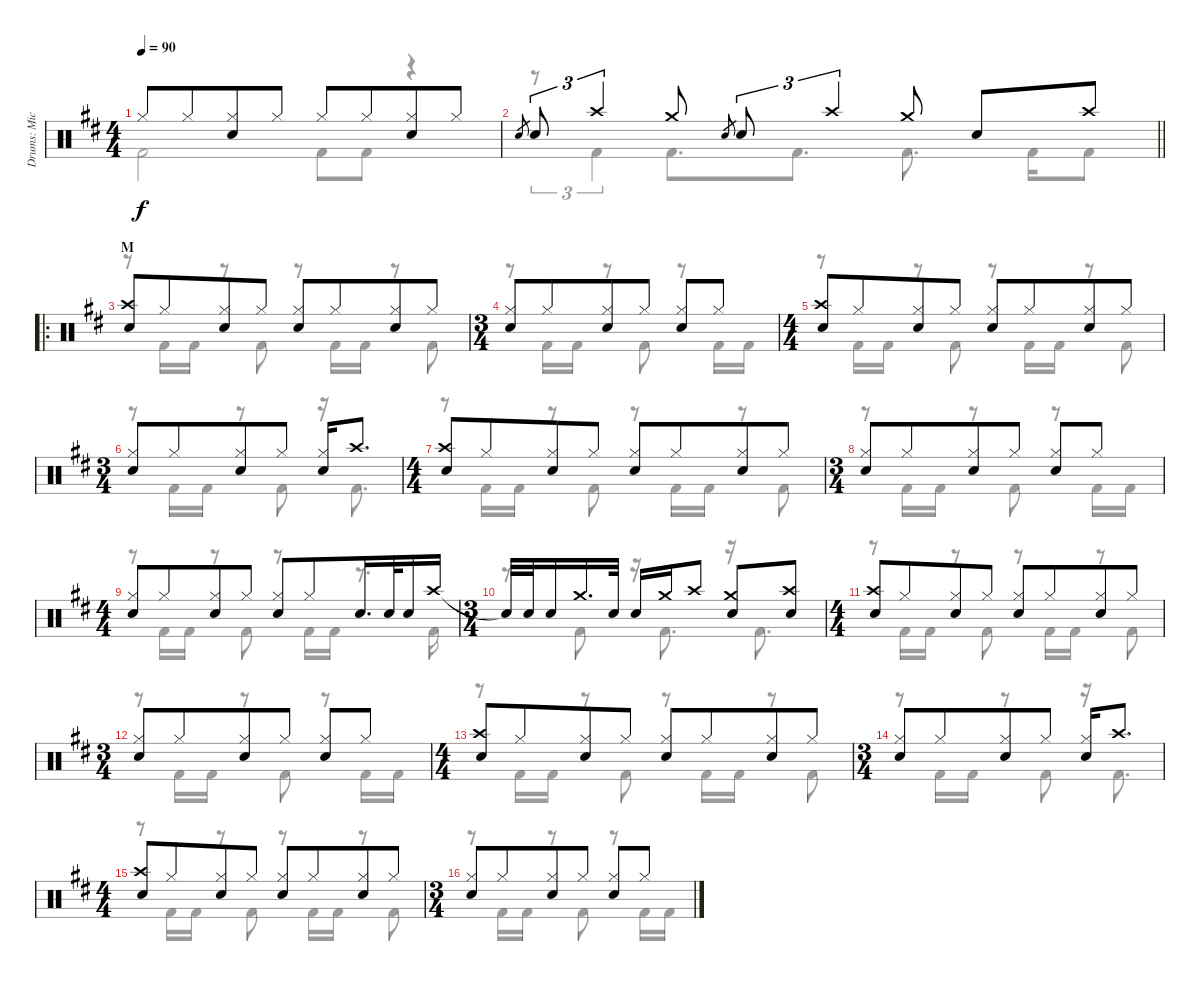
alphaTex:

\track ("Drums: Mick" "Drums: Mic") {instrument percussion}
\staff {score}
\articulation defaults
\voice
\ts (4 4)
\tempo 90
\clef neutral
\ks d "Hi-Hat (closed)".8{dy f} "Hi-Hat (closed)".8{beam merge}
("Hi-Hat (closed)" "Snare (hit) 2").8 "Hi-Hat (closed)".8 "Hi-Hat (closed)".8 "Hi-Hat (closed)".8{beam merge} ("Hi-Hat (closed)" "Snare (hit) 2").8 "Hi-Hat (closed)".8 |
\barLineRight lightlight "Electric Snare (hit)".8{gr} "Snare (hit) 2".8{tu (3 2)} "Crash high (hit)".4{tu (3 2)} "Crash medium (hit)".8 "Electric Snare (hit)".8{gr} "Snare (hit) 2".8{tu (3 2)} "Crash high (hit)".4{tu (3 2)} "Crash medium (hit)".8 "Snare (hit) 2".8 "Crash high (hit)".8
|
\ro
\section ("" "M")
("Crash high (hit)" "Snare (hit) 2").8 "Hi-Hat (closed)".8{beam merge} ("Hi-Hat (closed)" "Snare (hit) 2").8 "Hi-Hat (closed)".8 ("Hi-Hat (closed)" "Snare (hit) 2").8 "Hi-Hat (closed)".8{beam merge} ("Hi-Hat (closed)" "Snare (hit) 2").8 "Hi-Hat (closed)".8 |
\ts (3 4)
("Hi-Hat (closed)" "Snare (hit) 2").8 "Hi-Hat (closed)".8{beam merge} ("Hi-Hat (closed)" "Snare (hit) 2").8 "Hi-Hat (closed)".8 ("Hi-Hat (closed)" "Snare (hit) 2").8 "Hi-Hat (closed)".8 |
\ts (4 4)
("Crash high (hit)" "Snare (hit) 2").8 "Hi-Hat (closed)".8{beam merge} ("Hi-Hat (closed)" "Snare (hit) 2").8 "Hi-Hat (closed)".8 ("Hi-Hat (closed)" "Snare (hit) 2").8 "Hi-Hat (closed)".8{beam merge} ("Hi-Hat (closed)" "Snare (hit) 2").8 "Hi-Hat (closed)".8 |
\ts (3 4)
("Hi-Hat (closed)" "Snare (hit) 2").8 "Hi-Hat (closed)".8{beam merge} ("Hi-Hat (closed)" "Snare (hit) 2").8 "Hi-Hat (closed)".8 ("Hi-Hat (closed)" "Snare (hit) 2").16 "Crash high (hit)".8{d} |
\ts (4 4)
("Crash high (hit)" "Snare (hit) 2").8 "Hi-Hat (closed)".8{beam merge} ("Hi-Hat (closed)" "Snare (hit) 2").8 "Hi-Hat (closed)".8 ("Hi-Hat (closed)" "Snare (hit) 2").8 "Hi-Hat (closed)".8{beam merge} ("Hi-Hat (closed)" "Snare (hit) 2").8 "Hi-Hat (closed)".8 |
\ts (3 4)
("Hi-Hat (closed)" "Snare (hit) 2").8 "Hi-Hat (closed)".8{beam merge} ("Hi-Hat (closed)" "Snare (hit) 2").8 "Hi-Hat (closed)".8 ("Hi-Hat (closed)" "Snare (hit) 2").8 "Hi-Hat (closed)".8 |
\ts (4 4)
("Hi-Hat (closed)" "Snare (hit) 2").8 "Hi-Hat (closed)".8{beam merge} ("Hi-Hat (closed)" "Snare (hit) 2").8 "Hi-Hat (closed)".8 ("Hi-Hat (closed)" "Snare (hit) 2").8 "Hi-Hat (closed)".8{beam merge} "Snare (hit) 2".16{d} "Snare (hit) 2".32 "Snare (hit) 2".16 "Crash high (hit)".16 |
\ts (3 4)
"Snare (hit)"{t}.32{beam merge} "Snare (hit) 2".32 "Snare (hit) 2".16 "Crash medium (hit)".16{d} "Snare (hit) 2".32 "Snare (hit) 2".16 "Crash medium (hit)".16 "Crash high (hit)".8 ("Crash medium (hit)" "Snare (hit) 2").8 ("Crash high (hit)" "Snare (hit) 2").8 |
\ts (4 4)
("Crash high (hit)" "Snare (hit) 2").8 "Hi-Hat (closed)".8{beam merge} ("Hi-Hat (closed)" "Snare (hit) 2").8 "Hi-Hat (closed)".8 ("Hi-Hat (closed)" "Snare (hit) 2").8 "Hi-Hat (closed)".8{beam merge} ("Hi-Hat (closed)" "Snare (hit) 2").8 "Hi-Hat (closed)".8 |
\ts (3 4)
("Hi-Hat (closed)" "Snare (hit) 2").8 "Hi-Hat (closed)".8{beam merge} ("Hi-Hat (closed)" "Snare (hit) 2").8 "Hi-Hat (closed)".8 ("Hi-Hat (closed)" "Snare (hit) 2").8 "Hi-Hat (closed)".8 |
\ts (4 4)
("Crash high (hit)" "Snare (hit) 2").8 "Hi-Hat (closed)".8{beam merge} ("Hi-Hat (closed)" "Snare (hit) 2").8{volume 10} "Hi-Hat (closed)".8 ("Hi-Hat (closed)" "Snare (hit) 2").8 "Hi-Hat (closed)".8{beam merge} ("Hi-Hat (closed)" "Snare (hit) 2").8 "Hi-Hat (closed)".8 |
\ts (3 4)
("Hi-Hat (closed)" "Snare (hit) 2").8 "Hi-Hat (closed)".8{beam merge} ("Hi-Hat (closed)" "Snare (hit) 2").8 "Hi-Hat (closed)".8 ("Hi-Hat (closed)" "Snare (hit) 2").16 "Crash high (hit)".8{d} |
\ts (4 4)
("Crash high (hit)" "Snare (hit) 2").8 "Hi-Hat (closed)".8{beam merge} ("Hi-Hat (closed)" "Snare (hit) 2").8 "Hi-Hat (closed)".8 ("Hi-Hat (closed)" "Snare (hit) 2").8 "Hi-Hat (closed)".8{beam merge} ("Hi-Hat (closed)" "Snare (hit) 2").8 "Hi-Hat (closed)".8 |
\ts (3 4)
("Hi-Hat (closed)" "Snare (hit) 2").8 "Hi-Hat (closed)".8{beam merge} ("Hi-Hat (closed)" "Snare (hit) 2").8 "Hi-Hat (closed)".8 ("Hi-Hat (closed)" "Snare (hit) 2").8 "Hi-Hat (closed)".8
\voice
\clef neutral
\ottava regular
\simile none
\ks d "Kick (hit) 2".2{dy f} "Kick (hit) 2".8 "Kick (hit) 2".8
r.4 |
\barLineRight lightlight
r.8{tu (3 2)} "Kick (hit) 2".4{tu (3 2)} "Kick (hit) 2".8{d} "Kick (hit) 2".8{d} "Kick (hit) 2".8{d} "Kick (hit) 2".16 "Kick (hit) 2".8 |
r.8 "Kick (hit) 2".16 "Kick (hit) 2".16 r.8 "Kick (hit) 2".8 r.8 "Kick (hit) 2".16 "Kick (hit) 2".16 r.8 "Kick (hit) 2".8 |
r.8 "Kick (hit) 2".16 "Kick (hit) 2".16 r.8 "Kick (hit) 2".8 r.8 "Kick (hit) 2".16 "Kick (hit) 2".16 |
r.8 "Kick (hit) 2".16 "Kick (hit) 2".16 r.8 "Kick (hit) 2".8 r.8 "Kick (hit) 2".16 "Kick (hit) 2".16 r.8 "Kick (hit) 2".8 |
r.8 "Kick (hit) 2".16 "Kick (hit) 2".16 r.8 "Kick (hit) 2".8 r.16 "Kick (hit) 2".8{d} |
r.8 "Kick (hit) 2".16 "Kick (hit) 2".16 r.8 "Kick (hit) 2".8 r.8 "Kick (hit) 2".16 "Kick (hit) 2".16 r.8 "Kick (hit) 2".8 |
r.8 "Kick (hit) 2".16 "Kick (hit) 2".16 r.8 "Kick (hit) 2".8 r.8 "Kick (hit) 2".16 "Kick (hit) 2".16 |
r.8 "Kick (hit) 2".16 "Kick (hit) 2".16 r.8 "Kick (hit) 2".8 r.8 "Kick (hit) 2".16 "Kick (hit) 2".16 r.8{d} "Kick (hit) 2".16 |
r.8 "Kick (hit) 2".8 r.16 "Kick (hit) 2".8{d} r.16 "Kick (hit) 2".8{d} |
r.8 "Kick (hit) 2".16 "Kick (hit) 2".16 r.8 "Kick (hit) 2".8 r.8 "Kick (hit) 2".16 "Kick (hit) 2".16 r.8 "Kick (hit) 2".8 |
r.8 "Kick (hit) 2".16 "Kick (hit) 2".16 r.8 "Kick (hit) 2".8 r.8 "Kick (hit) 2".16 "Kick (hit) 2".16 |
r.8 "Kick (hit) 2".16 "Kick (hit) 2".16 r.8 "Kick (hit) 2".8 r.8 "Kick (hit) 2".16 "Kick (hit) 2".16 r.8 "Kick (hit) 2".8 |
r.8 "Kick (hit) 2".16 "Kick (hit) 2".16 r.8 "Kick (hit) 2".8 r.16 "Kick (hit) 2".8{d} |
r.8 "Kick (hit) 2".16 "Kick (hit) 2".16 r.8 "Kick (hit) 2".8 r.8 "Kick (hit) 2".16 "Kick (hit) 2".16 r.8 "Kick (hit) 2".8 |
r.8 "Kick (hit) 2".16 "Kick (hit) 2".16 r.8 "Kick (hit) 2".8 r.8 "Kick (hit) 2".16 "Kick (hit) 2".16
